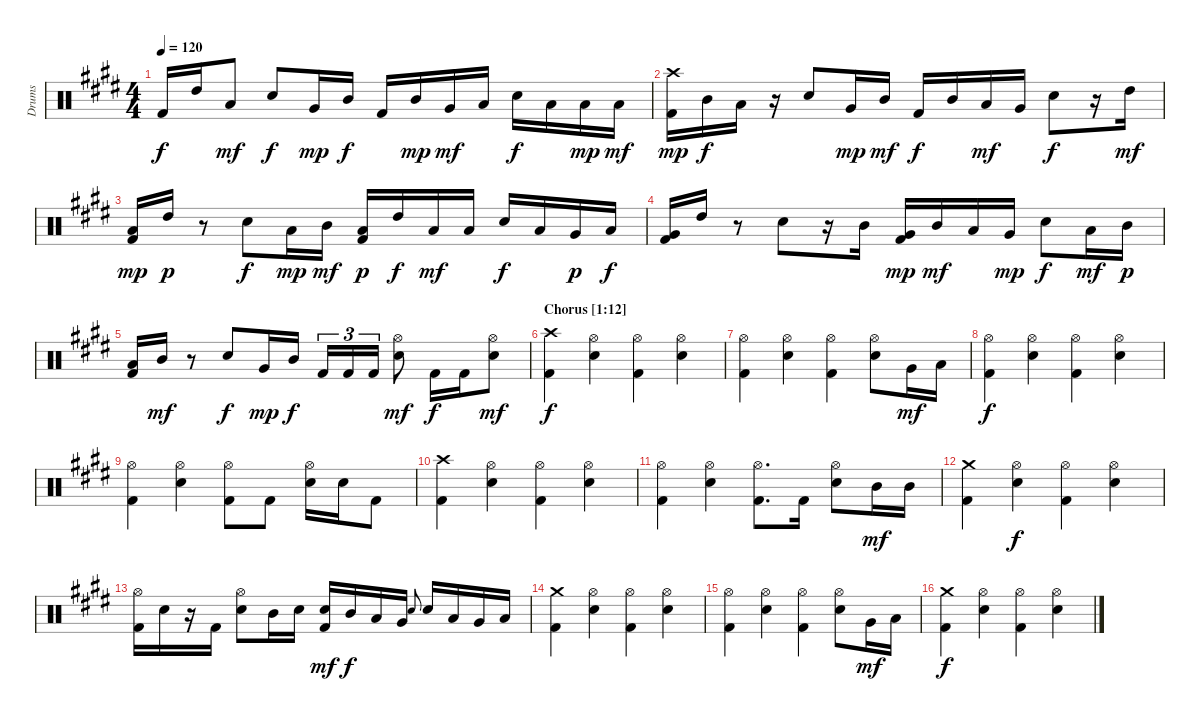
\track ("Drums" "Drums") {instrument percussion}
\staff {score}
\articulation defaults
\ts (4 4)
\tempo 120
\clef neutral
\ks c#minor "Kick (hit) 2".16{dy f} "High Tom (hit)".16 "Low Tom (hit)".8{dy mf} "Snare (hit) 2".8{dy f} "Very Low Tom (hit)".16{dy mp} "Mid Tom (hit)".16{dy f} "Kick (hit) 2".16 "Mid Tom (hit)".16{dy mp} "Very Low Tom (hit)".16{dy mf} "Low Floor Tom (hit)".16 "Snare (hit) 2".16{dy f} "Low Floor Tom (hit)".16 "Low Tom (hit)".16{dy mp} "Low Floor Tom (hit)".16{dy mf}
|
("Crash high (hit)" "Kick (hit) 2").16{dy mp} "Mid Tom (hit)".16{dy f} "Low Tom (hit)".16 r.16 "Snare (hit) 2".8 "Very Low Tom (hit)".16{dy mp} "Mid Tom (hit)".16{dy mf} "Kick (hit) 2".16{dy f} "Mid Tom (hit)".16 "Low Tom (hit)".16{dy mf} "Very Low Tom (hit)".16 "Snare (hit) 2".8{dy f} r.16 "High Tom (hit)".16{dy mf} |
("Low Tom (hit)" "Kick (hit) 2").16{dy mp} "High Tom (hit)".16{dy p} r.8 "Snare (hit) 2".8{dy f} "Low Tom (hit)".16{dy mp} "Mid Tom (hit)".16{dy mf} ("Low Tom (hit)" "Kick (hit) 2").16{dy p} "High Tom (hit)".16{dy f} "Low Tom (hit)".16{dy mf} "Low Floor Tom (hit)".16 "Snare (hit) 2".16{dy f} "Low Floor Tom (hit)".16 "Very Low Tom (hit)".16{dy p} "Low Floor Tom (hit)".16{dy f} |
("Very Low Tom (hit)" "Kick (hit) 2").16 "High Tom (hit)".16 r.8 "Snare (hit) 2".8 r.16 "Mid Tom (hit)".16 ("Very Low Tom (hit)" "Kick (hit) 2").16{dy mp} "Mid Tom (hit)".16{dy mf} "Low Tom (hit)".16 "Very Low Tom (hit)".16{dy mp} "Snare (hit) 2".8{dy f} "Low Floor Tom (hit)".16{dy mf} "Mid Tom (hit)".16{dy p} |
("Low Floor Tom (hit)" "Kick (hit) 2").16 "Mid Tom (hit)".16{dy mf} r.8 "Snare (hit) 2".8{dy f} "Very Low Tom (hit)".16{dy mp} "Mid Tom (hit)".16{dy f} "Kick (hit) 2".16{tu (3 2)} "Kick (hit) 2".16{tu (3 2)} "Kick (hit) 2".16{tu (3 2)} ("Hi-Hat (open)" "Snare (hit) 2").8{dy mf} "Kick (hit) 2".16{dy f} "Kick (hit) 2".16 ("Hi-Hat (open)" "Snare (hit) 2").8{dy mf} |
\section ("" "Chorus [1:12]")
("Crash high (hit)" "Kick (hit) 2").4{dy f} ("Hi-Hat (open)" "Snare (hit) 2").4 ("Hi-Hat (open)" "Kick (hit) 2").4 ("Hi-Hat (open)" "Snare (hit) 2").4 |
("Hi-Hat (open)" "Kick (hit) 2").4 ("Hi-Hat (open)" "Snare (hit) 2").4 ("Hi-Hat (open)" "Kick (hit) 2").4 ("Hi-Hat (open)" "Snare (hit) 2").8 "Very Low Tom (hit)".16{dy mf} "Low Floor Tom (hit)".16 |
("Hi-Hat (open)" "Kick (hit) 2").4{dy f} ("Hi-Hat (open)" "Snare (hit) 2").4 ("Hi-Hat (open)" "Kick (hit) 2").4 ("Hi-Hat (open)" "Snare (hit) 2").4 |
("Hi-Hat (open)" "Kick (hit) 2").4 ("Hi-Hat (open)" "Snare (hit) 2").4 ("Hi-Hat (open)" "Kick (hit) 2").8 "Kick (hit) 2".8 ("Hi-Hat (open)" "Snare (hit) 2").16 "Snare (hit) 2".16 "Kick (hit) 2".8 |
("Crash high (hit)" "Kick (hit) 2").4 ("Hi-Hat (open)" "Snare (hit) 2").4 ("Hi-Hat (open)" "Kick (hit) 2").4 ("Hi-Hat (open)" "Snare (hit) 2").4 |
("Hi-Hat (open)" "Kick (hit) 2").4 ("Hi-Hat (open)" "Snare (hit) 2").4 ("Hi-Hat (open)" "Kick (hit) 2").8{d} "Kick (hit) 2".16 ("Hi-Hat (open)" "Snare (hit) 2").8 "Mid Tom (hit)".16{dy mf} "Mid Tom (hit)".16 |
("Crash medium (hit)" "Kick (hit) 2").4 ("Hi-Hat (open)" "Snare (hit) 2").4{dy f} ("Hi-Hat (open)" "Kick (hit) 2").4 ("Hi-Hat (open)" "Snare (hit) 2").4 |
("Hi-Hat (open)" "Kick (hit) 2").16 "Snare (hit) 2".16 r.16 "Kick (hit) 2".16 ("Hi-Hat (open)" "Snare (hit) 2").8 "Mid Tom (hit)".16 "Snare (hit) 2".16 ("Snare (hit) 2" "Kick (hit) 2").16{dy mf} "Mid Tom (hit)".16{dy f} "Low Tom (hit)".16 "Very Low Tom (hit)".16 "Snare (hit) 2".8{gr onbeat} "Snare (hit) 2".16 "Low Tom (hit)".16 "Very Low Tom (hit)".16 "Low Floor Tom (hit)".16 |
("Crash medium (hit)" "Kick (hit) 2").4 ("Hi-Hat (open)" "Snare (hit) 2").4 ("Hi-Hat (open)" "Kick (hit) 2").4 ("Hi-Hat (open)" "Snare (hit) 2").4 |
("Hi-Hat (open)" "Kick (hit) 2").4 ("Hi-Hat (open)" "Snare (hit) 2").4 ("Hi-Hat (open)" "Kick (hit) 2").4 ("Hi-Hat (open)" "Snare (hit) 2").8 "Very Low Tom (hit)".16{dy mf} "Low Floor Tom (hit)".16 |
("Crash medium (hit)" "Kick (hit) 2").4{dy f} ("Hi-Hat (open)" "Snare (hit) 2").4 ("Hi-Hat (open)" "Kick (hit) 2").4 ("Hi-Hat (open)" "Snare (hit) 2").4
